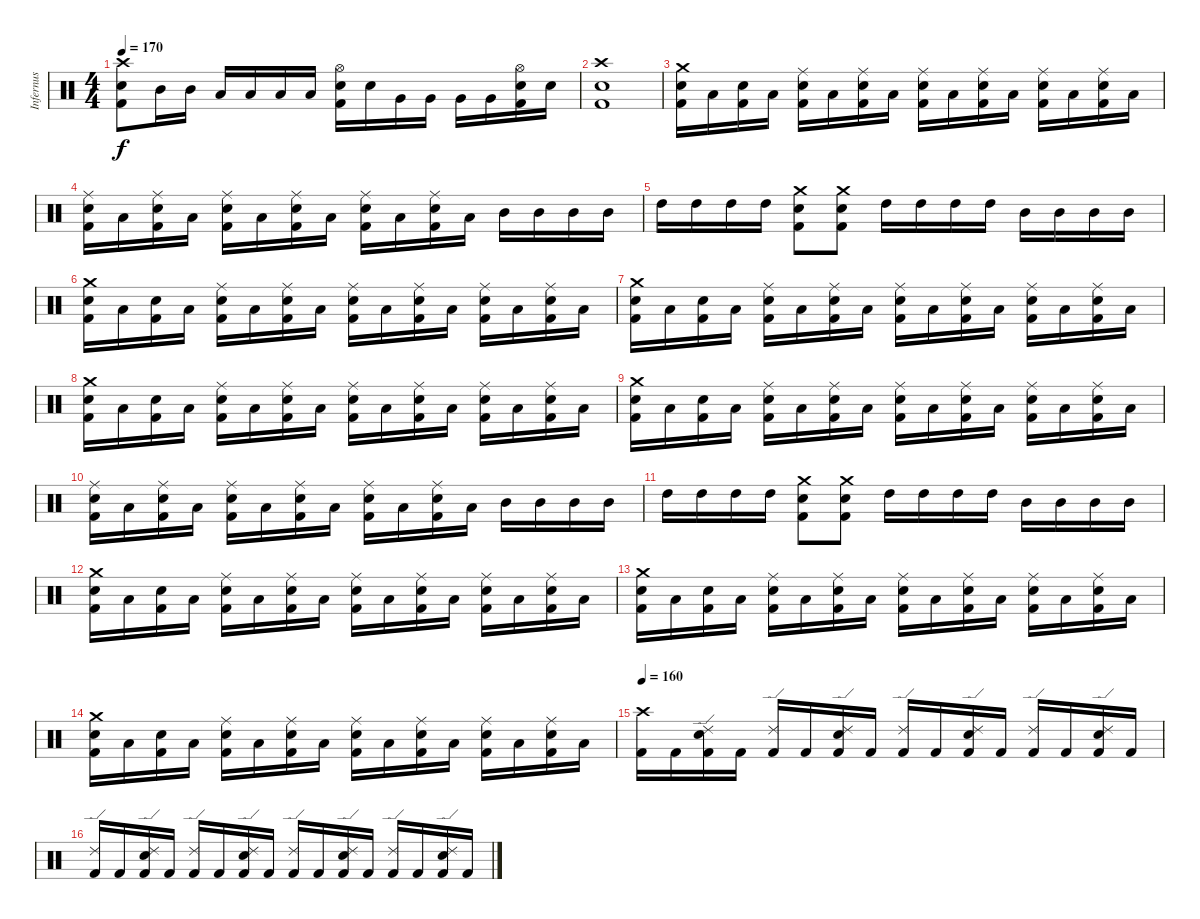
\track ("Infernus" "Infernus") {instrument percussion}
\staff {score}
\articulation defaults
\ts (4 4)
\tempo 170
\clef neutral
\ks c
("Crash high (hit)" "Electric Snare (hit)" "Kick (hit) 2").8{dy f} "Mid Tom (hit)".16 "Mid Tom (hit)".16 "Low Tom (hit)".16 "Low Tom (hit)".16 "Low Tom (hit)".16 "Low Tom (hit)".16 ("Hi-Hat (open)" "Electric Snare (hit)" "Kick (hit) 2").16 "Electric Snare (hit)".16 "Very Low Tom (hit)".16 "Very Low Tom (hit)".16 "Very Low Tom (hit)".16 "Very Low Tom (hit)".16 ("Hi-Hat (open)" "Electric Snare (hit)" "Kick (hit) 2").16 "Electric Snare (hit)".16 |
("Crash high (hit)" "Electric Snare (hit)" "Kick (hit) 2").1 |
("Crash medium (hit)" "Electric Snare (hit)" "Kick (hit) 2").16 "Low Tom (hit)".16 ("Electric Snare (hit)" "Kick (hit) 2").16 "Low Tom (hit)".16 ("Ride (middle)" "Electric Snare (hit)" "Kick (hit) 2").16 "Low Tom (hit)".16 ("Ride (middle)" "Electric Snare (hit)" "Kick (hit) 2").16 "Low Tom (hit)".16 ("Ride (middle)" "Electric Snare (hit)" "Kick (hit) 2").16 "Low Tom (hit)".16 ("Ride (middle)" "Electric Snare (hit)" "Kick (hit) 2").16 "Low Tom (hit)".16 ("Ride (middle)" "Electric Snare (hit)" "Kick (hit) 2").16 "Low Tom (hit)".16 ("Ride (middle)" "Electric Snare (hit)" "Kick (hit) 2").16 "Low Tom (hit)".16 |
("Ride (middle)" "Electric Snare (hit)" "Kick (hit) 2").16 "Low Tom (hit)".16 ("Ride (middle)" "Electric Snare (hit)" "Kick (hit) 2").16 "Low Tom (hit)".16 ("Ride (middle)" "Electric Snare (hit)" "Kick (hit) 2").16 "Low Tom (hit)".16 ("Ride (middle)" "Electric Snare (hit)" "Kick (hit) 2").16 "Low Tom (hit)".16 ("Ride (middle)" "Electric Snare (hit)" "Kick (hit) 2").16 "Low Tom (hit)".16 ("Ride (middle)" "Electric Snare (hit)" "Kick (hit) 2").16 "Low Tom (hit)".16 "Mid Tom (hit)".16 "Mid Tom (hit)".16 "Mid Tom (hit)".16 "Mid Tom (hit)".16 |
"High Tom (hit)".16 "High Tom (hit)".16 "High Tom (hit)".16 "High Tom (hit)".16 ("Crash medium (hit)" "Electric Snare (hit)" "Kick (hit) 2").8 ("Crash medium (hit)" "Electric Snare (hit)" "Kick (hit) 2").8 "High Tom (hit)".16 "High Tom (hit)".16 "High Tom (hit)".16 "High Tom (hit)".16 "Mid Tom (hit)".16 "Mid Tom (hit)".16 "Mid Tom (hit)".16 "Mid Tom (hit)".16 |
("Crash medium (hit)" "Electric Snare (hit)" "Kick (hit) 2").16 "Low Tom (hit)".16 ("Electric Snare (hit)" "Kick (hit) 2").16 "Low Tom (hit)".16 ("Ride (middle)" "Electric Snare (hit)" "Kick (hit) 2").16 "Low Tom (hit)".16 ("Ride (middle)" "Electric Snare (hit)" "Kick (hit) 2").16 "Low Tom (hit)".16 ("Ride (middle)" "Electric Snare (hit)" "Kick (hit) 2").16 "Low Tom (hit)".16 ("Ride (middle)" "Electric Snare (hit)" "Kick (hit) 2").16 "Low Tom (hit)".16 ("Ride (middle)" "Electric Snare (hit)" "Kick (hit) 2").16 "Low Tom (hit)".16 ("Ride (middle)" "Electric Snare (hit)" "Kick (hit) 2").16 "Low Tom (hit)".16 |
("Crash medium (hit)" "Electric Snare (hit)" "Kick (hit) 2").16 "Low Tom (hit)".16 ("Electric Snare (hit)" "Kick (hit) 2").16 "Low Tom (hit)".16 ("Ride (middle)" "Electric Snare (hit)" "Kick (hit) 2").16 "Low Tom (hit)".16 ("Ride (middle)" "Electric Snare (hit)" "Kick (hit) 2").16 "Low Tom (hit)".16 ("Ride (middle)" "Electric Snare (hit)" "Kick (hit) 2").16 "Low Tom (hit)".16 ("Ride (middle)" "Electric Snare (hit)" "Kick (hit) 2").16 "Low Tom (hit)".16 ("Ride (middle)" "Electric Snare (hit)" "Kick (hit) 2").16 "Low Tom (hit)".16 ("Ride (middle)" "Electric Snare (hit)" "Kick (hit) 2").16 "Low Tom (hit)".16 |
("Crash medium (hit)" "Electric Snare (hit)" "Kick (hit) 2").16 "Low Tom (hit)".16 ("Electric Snare (hit)" "Kick (hit) 2").16 "Low Tom (hit)".16 ("Ride (middle)" "Electric Snare (hit)" "Kick (hit) 2").16 "Low Tom (hit)".16 ("Ride (middle)" "Electric Snare (hit)" "Kick (hit) 2").16 "Low Tom (hit)".16 ("Ride (middle)" "Electric Snare (hit)" "Kick (hit) 2").16 "Low Tom (hit)".16 ("Ride (middle)" "Electric Snare (hit)" "Kick (hit) 2").16 "Low Tom (hit)".16 ("Ride (middle)" "Electric Snare (hit)" "Kick (hit) 2").16 "Low Tom (hit)".16 ("Ride (middle)" "Electric Snare (hit)" "Kick (hit) 2").16 "Low Tom (hit)".16 |
("Crash medium (hit)" "Electric Snare (hit)" "Kick (hit) 2").16 "Low Tom (hit)".16 ("Electric Snare (hit)" "Kick (hit) 2").16 "Low Tom (hit)".16 ("Ride (middle)" "Electric Snare (hit)" "Kick (hit) 2").16 "Low Tom (hit)".16 ("Ride (middle)" "Electric Snare (hit)" "Kick (hit) 2").16 "Low Tom (hit)".16 ("Ride (middle)" "Electric Snare (hit)" "Kick (hit) 2").16 "Low Tom (hit)".16 ("Ride (middle)" "Electric Snare (hit)" "Kick (hit) 2").16 "Low Tom (hit)".16 ("Ride (middle)" "Electric Snare (hit)" "Kick (hit) 2").16 "Low Tom (hit)".16 ("Ride (middle)" "Electric Snare (hit)" "Kick (hit) 2").16 "Low Tom (hit)".16 |
("Ride (middle)" "Electric Snare (hit)" "Kick (hit) 2").16 "Low Tom (hit)".16 ("Ride (middle)" "Electric Snare (hit)" "Kick (hit) 2").16 "Low Tom (hit)".16 ("Ride (middle)" "Electric Snare (hit)" "Kick (hit) 2").16 "Low Tom (hit)".16 ("Ride (middle)" "Electric Snare (hit)" "Kick (hit) 2").16 "Low Tom (hit)".16 ("Ride (middle)" "Electric Snare (hit)" "Kick (hit) 2").16 "Low Tom (hit)".16 ("Ride (middle)" "Electric Snare (hit)" "Kick (hit) 2").16 "Low Tom (hit)".16 "Mid Tom (hit)".16 "Mid Tom (hit)".16 "Mid Tom (hit)".16 "Mid Tom (hit)".16 |
"High Tom (hit)".16 "High Tom (hit)".16 "High Tom (hit)".16 "High Tom (hit)".16 ("Crash medium (hit)" "Electric Snare (hit)" "Kick (hit) 2").8 ("Crash medium (hit)" "Electric Snare (hit)" "Kick (hit) 2").8 "High Tom (hit)".16 "High Tom (hit)".16 "High Tom (hit)".16 "High Tom (hit)".16 "Mid Tom (hit)".16 "Mid Tom (hit)".16 "Mid Tom (hit)".16 "Mid Tom (hit)".16 |
("Crash medium (hit)" "Electric Snare (hit)" "Kick (hit) 2").16 "Low Tom (hit)".16 ("Electric Snare (hit)" "Kick (hit) 2").16 "Low Tom (hit)".16 ("Ride (middle)" "Electric Snare (hit)" "Kick (hit) 2").16 "Low Tom (hit)".16 ("Ride (middle)" "Electric Snare (hit)" "Kick (hit) 2").16 "Low Tom (hit)".16 ("Ride (middle)" "Electric Snare (hit)" "Kick (hit) 2").16 "Low Tom (hit)".16 ("Ride (middle)" "Electric Snare (hit)" "Kick (hit) 2").16 "Low Tom (hit)".16 ("Ride (middle)" "Electric Snare (hit)" "Kick (hit) 2").16 "Low Tom (hit)".16 ("Ride (middle)" "Electric Snare (hit)" "Kick (hit) 2").16 "Low Tom (hit)".16 |
("Crash medium (hit)" "Electric Snare (hit)" "Kick (hit) 2").16 "Low Tom (hit)".16 ("Electric Snare (hit)" "Kick (hit) 2").16 "Low Tom (hit)".16 ("Ride (middle)" "Electric Snare (hit)" "Kick (hit) 2").16 "Low Tom (hit)".16 ("Ride (middle)" "Electric Snare (hit)" "Kick (hit) 2").16 "Low Tom (hit)".16 ("Ride (middle)" "Electric Snare (hit)" "Kick (hit) 2").16 "Low Tom (hit)".16 ("Ride (middle)" "Electric Snare (hit)" "Kick (hit) 2").16 "Low Tom (hit)".16 ("Ride (middle)" "Electric Snare (hit)" "Kick (hit) 2").16 "Low Tom (hit)".16 ("Ride (middle)" "Electric Snare (hit)" "Kick (hit) 2").16 "Low Tom (hit)".16 |
("Crash medium (hit)" "Electric Snare (hit)" "Kick (hit) 2").16 "Low Tom (hit)".16 ("Electric Snare (hit)" "Kick (hit) 2").16 "Low Tom (hit)".16 ("Ride (middle)" "Electric Snare (hit)" "Kick (hit) 2").16 "Low Tom (hit)".16 ("Ride (middle)" "Electric Snare (hit)" "Kick (hit) 2").16 "Low Tom (hit)".16 ("Ride (middle)" "Electric Snare (hit)" "Kick (hit) 2").16 "Low Tom (hit)".16 ("Ride (middle)" "Electric Snare (hit)" "Kick (hit) 2").16 "Low Tom (hit)".16 ("Ride (middle)" "Electric Snare (hit)" "Kick (hit) 2").16 "Low Tom (hit)".16 ("Ride (middle)" "Electric Snare (hit)" "Kick (hit) 2").16 "Low Tom (hit)".16 |
\tempo 160
("Crash high (hit)" "Kick (hit) 2").16 "Kick (hit) 2".16 ("Ride (edge) 2" "Electric Snare (hit)" "Kick (hit) 2").16 "Kick (hit) 2".16 ("Ride (edge) 2" "Kick (hit) 2").16 "Kick (hit) 2".16 ("Ride (edge) 2" "Electric Snare (hit)" "Kick (hit) 2").16 "Kick (hit) 2".16 ("Ride (edge) 2" "Kick (hit) 2").16 "Kick (hit) 2".16 ("Ride (edge) 2" "Electric Snare (hit)" "Kick (hit) 2").16 "Kick (hit) 2".16 ("Ride (edge) 2" "Kick (hit) 2").16 "Kick (hit) 2".16 ("Ride (edge) 2" "Electric Snare (hit)" "Kick (hit) 2").16 "Kick (hit) 2".16 |
("Ride (edge) 2" "Kick (hit) 2").16 "Kick (hit) 2".16 ("Ride (edge) 2" "Electric Snare (hit)" "Kick (hit) 2").16 "Kick (hit) 2".16 ("Ride (edge) 2" "Kick (hit) 2").16 "Kick (hit) 2".16 ("Ride (edge) 2" "Electric Snare (hit)" "Kick (hit) 2").16 "Kick (hit) 2".16 ("Ride (edge) 2" "Kick (hit) 2").16 "Kick (hit) 2".16 ("Ride (edge) 2" "Electric Snare (hit)" "Kick (hit) 2").16 "Kick (hit) 2".16 ("Ride (edge) 2" "Kick (hit) 2").16 "Kick (hit) 2".16 ("Ride (edge) 2" "Electric Snare (hit)" "Kick (hit) 2").16 "Kick (hit) 2".16
